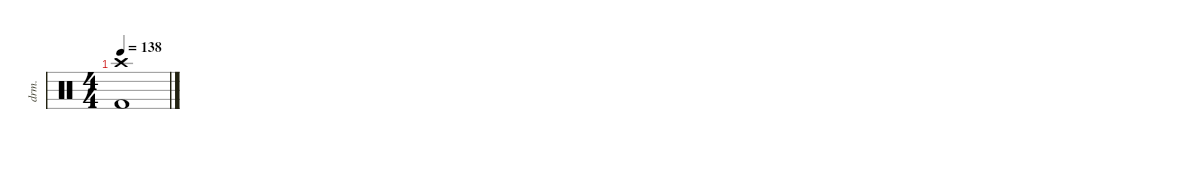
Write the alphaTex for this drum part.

\defaultSystemsLayout 4
\hideDynamics
\bracketExtendMode nobrackets
\track ("Percussions" "drm.") {instrument percussion}
\staff {score}
\articulation defaults
\ts (4 4)
\tempo 138
\clef neutral
\ks aminor
("Kick (hit) 2" "Crash high (hit)").1{dy f beam Down}
